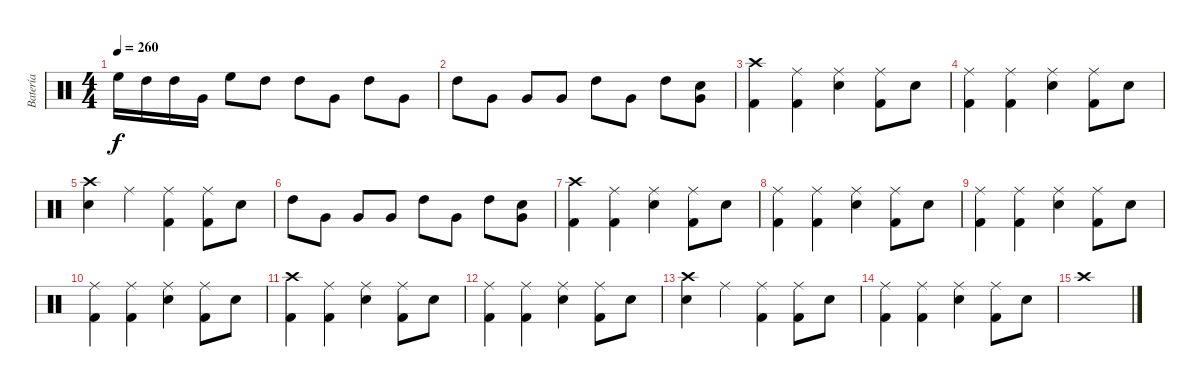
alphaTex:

\track ("Batería" "Batería") {instrument percussion}
\staff {score}
\articulation defaults
\ts (4 4)
\tempo 260
\clef neutral
\ks c "High Floor Tom (hit)".16{dy f} "High Tom (hit)".16 "High Tom (hit)".16 "Very Low Tom (hit)".16 "High Floor Tom (hit)".8 "High Tom (hit)".8 "High Tom (hit)".8 "Very Low Tom (hit)".8 "High Tom (hit)".8 "Very Low Tom (hit)".8
|
"High Tom (hit)".8 "Very Low Tom (hit)".8 "Very Low Tom (hit)".8 "Very Low Tom (hit)".8 "High Tom (hit)".8 "Very Low Tom (hit)".8 "High Tom (hit)".8 ("Snare (hit)" "Very Low Tom (hit)").8 |
("Kick (hit) 2" "Crash high (hit)").4 ("Kick (hit) 2" "Ride (middle)").4 ("Snare (hit) 2" "Ride (middle)").4 ("Kick (hit) 2" "Ride (middle)").8 "Snare (hit) 2".8 |
("Kick (hit) 2" "Ride (middle)").4 ("Kick (hit) 2" "Ride (middle)").4 ("Snare (hit) 2" "Ride (middle)").4 ("Kick (hit) 2" "Ride (middle)").8 "Snare (hit) 2".8 |
("Snare (hit) 2" "Crash high (hit)").4 "Ride (middle)".4 ("Kick (hit) 2" "Ride (middle)").4 ("Kick (hit) 2" "Ride (middle)").8 "Snare (hit) 2".8 |
"High Tom (hit)".8 "Very Low Tom (hit)".8 "Very Low Tom (hit)".8 "Very Low Tom (hit)".8 "High Tom (hit)".8 "Very Low Tom (hit)".8 "High Tom (hit)".8 ("Snare (hit)" "Very Low Tom (hit)").8 |
("Kick (hit) 2" "Crash high (hit)").4 ("Kick (hit) 2" "Ride (middle)").4 ("Snare (hit) 2" "Ride (middle)").4 ("Kick (hit) 2" "Ride (middle)").8 "Snare (hit) 2".8 |
("Kick (hit) 2" "Ride (middle)").4 ("Kick (hit) 2" "Ride (middle)").4 ("Snare (hit) 2" "Ride (middle)").4 ("Kick (hit) 2" "Ride (middle)").8 "Snare (hit) 2".8 |
("Kick (hit) 2" "Ride (middle)").4 ("Kick (hit) 2" "Ride (middle)").4 ("Snare (hit) 2" "Ride (middle)").4 ("Kick (hit) 2" "Ride (middle)").8 "Snare (hit) 2".8 |
("Kick (hit) 2" "Ride (middle)").4 ("Kick (hit) 2" "Ride (middle)").4 ("Snare (hit) 2" "Ride (middle)").4 ("Kick (hit) 2" "Ride (middle)").8 "Snare (hit) 2".8 |
("Kick (hit) 2" "Crash high (hit)").4 ("Kick (hit) 2" "Ride (middle)").4 ("Snare (hit) 2" "Ride (middle)").4 ("Kick (hit) 2" "Ride (middle)").8 "Snare (hit) 2".8 |
("Kick (hit) 2" "Ride (middle)").4 ("Kick (hit) 2" "Ride (middle)").4 ("Snare (hit) 2" "Ride (middle)").4 ("Kick (hit) 2" "Ride (middle)").8 "Snare (hit) 2".8 |
("Snare (hit) 2" "Crash high (hit)").4 "Ride (middle)".4 ("Kick (hit) 2" "Ride (middle)").4 ("Kick (hit) 2" "Ride (middle)").8 "Snare (hit) 2".8 |
("Kick (hit) 2" "Ride (middle)").4 ("Kick (hit) 2" "Ride (middle)").4 ("Snare (hit) 2" "Ride (middle)").4 ("Kick (hit) 2" "Ride (middle)").8 "Snare (hit) 2".8 |
"Crash high (hit)".1
